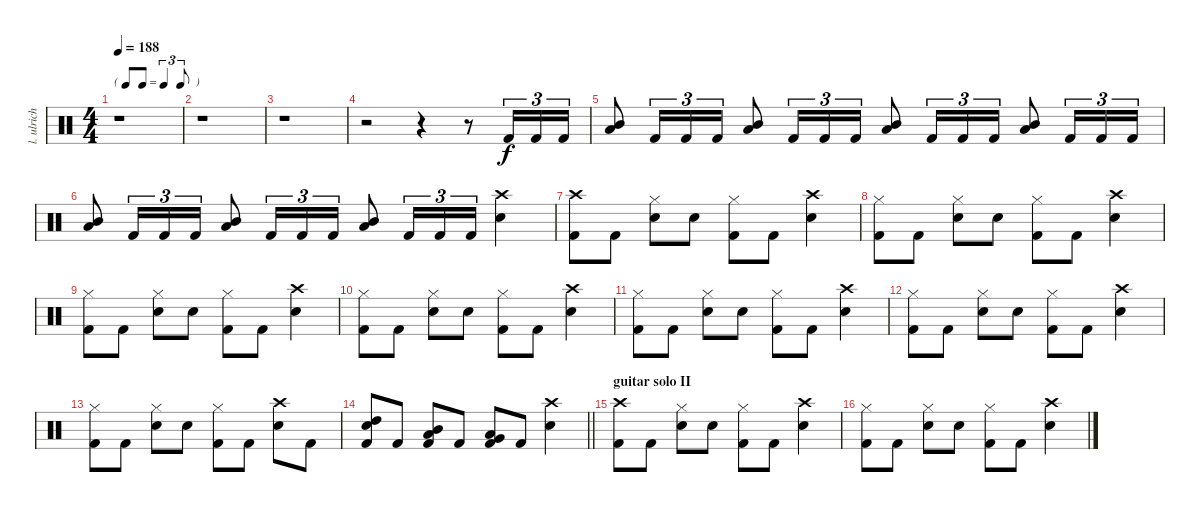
\track ("l. ulrich - drums" "l. ulrich ") {instrument percussion}
\staff {score}
\articulation defaults
\ts (4 4)
\tf triplet8th
\tempo 188
\clef neutral
\ks c
r.1{dy f} |
r.1 |
r.1 |
r.2 r.4 r.8 "Kick (hit) 2".16{tu (3 2)} "Kick (hit) 2".16{tu (3 2)} "Kick (hit) 2".16{tu (3 2)} |
("Mid Tom (hit)" "Low Tom (hit)").8 "Kick (hit) 2".16{tu (3 2)} "Kick (hit) 2".16{tu (3 2)} "Kick (hit) 2".16{tu (3 2)} ("Mid Tom (hit)" "Low Tom (hit)").8 "Kick (hit) 2".16{tu (3 2)} "Kick (hit) 2".16{tu (3 2)} "Kick (hit) 2".16{tu (3 2)} ("Mid Tom (hit)" "Low Tom (hit)").8 "Kick (hit) 2".16{tu (3 2)} "Kick (hit) 2".16{tu (3 2)} "Kick (hit) 2".16{tu (3 2)} ("Mid Tom (hit)" "Low Tom (hit)").8 "Kick (hit) 2".16{tu (3 2)} "Kick (hit) 2".16{tu (3 2)} "Kick (hit) 2".16{tu (3 2)} |
("Mid Tom (hit)" "Low Tom (hit)").8 "Kick (hit) 2".16{tu (3 2)} "Kick (hit) 2".16{tu (3 2)} "Kick (hit) 2".16{tu (3 2)} ("Mid Tom (hit)" "Low Tom (hit)").8 "Kick (hit) 2".16{tu (3 2)} "Kick (hit) 2".16{tu (3 2)} "Kick (hit) 2".16{tu (3 2)} ("Mid Tom (hit)" "Low Tom (hit)").8 "Kick (hit) 2".16{tu (3 2)} "Kick (hit) 2".16{tu (3 2)} "Kick (hit) 2".16{tu (3 2)} ("Crash high (hit)" "Snare (hit) 2").4 |
("Crash high (hit)" "Kick (hit) 2").8 "Kick (hit) 2".8 ("Hi-Hat (closed)" "Snare (hit) 2").8 "Snare (hit) 2".8 ("Hi-Hat (closed)" "Kick (hit) 2").8 "Kick (hit) 2".8 ("Crash high (hit)" "Snare (hit) 2").4 |
("Hi-Hat (closed)" "Kick (hit) 2").8 "Kick (hit) 2".8 ("Hi-Hat (closed)" "Snare (hit) 2").8 "Snare (hit) 2".8 ("Hi-Hat (closed)" "Kick (hit) 2").8 "Kick (hit) 2".8 ("Crash high (hit)" "Snare (hit) 2").4 |
("Hi-Hat (closed)" "Kick (hit) 2").8 "Kick (hit) 2".8 ("Hi-Hat (closed)" "Snare (hit) 2").8 "Snare (hit) 2".8 ("Hi-Hat (closed)" "Kick (hit) 2").8 "Kick (hit) 2".8 ("Crash high (hit)" "Snare (hit) 2").4 |
("Hi-Hat (closed)" "Kick (hit) 2").8 "Kick (hit) 2".8 ("Hi-Hat (closed)" "Snare (hit) 2").8 "Snare (hit) 2".8 ("Hi-Hat (closed)" "Kick (hit) 2").8 "Kick (hit) 2".8 ("Crash high (hit)" "Snare (hit) 2").4 |
("Hi-Hat (closed)" "Kick (hit) 2").8 "Kick (hit) 2".8 ("Hi-Hat (closed)" "Snare (hit) 2").8 "Snare (hit) 2".8 ("Hi-Hat (closed)" "Kick (hit) 2").8 "Kick (hit) 2".8 ("Crash high (hit)" "Snare (hit) 2").4 |
("Hi-Hat (closed)" "Kick (hit) 2").8 "Kick (hit) 2".8 ("Hi-Hat (closed)" "Snare (hit) 2").8 "Snare (hit) 2".8 ("Hi-Hat (closed)" "Kick (hit) 2").8 "Kick (hit) 2".8 ("Crash high (hit)" "Snare (hit) 2").4 |
("Hi-Hat (closed)" "Kick (hit) 2").8 "Kick (hit) 2".8 ("Hi-Hat (closed)" "Snare (hit) 2").8 "Snare (hit) 2".8 ("Hi-Hat (closed)" "Kick (hit) 2").8 "Kick (hit) 2".8 ("Crash high (hit)" "Snare (hit) 2").8 "Kick (hit) 2".8 |
\barLineRight lightlight
("Snare (hit) 2" "High Tom (hit)" "Kick (hit) 2").8 "Kick (hit) 2".8 ("Mid Tom (hit)" "Low Tom (hit)" "Kick (hit) 2").8 "Kick (hit) 2".8 ("Low Tom (hit)" "Very Low Tom (hit)" "Kick (hit) 2").8 "Kick (hit) 2".8 ("Crash high (hit)" "Snare (hit) 2").4 |
\section ("" "guitar solo II")
("Crash high (hit)" "Kick (hit) 2").8 "Kick (hit) 2".8 ("Hi-Hat (closed)" "Snare (hit) 2").8 "Snare (hit) 2".8 ("Hi-Hat (closed)" "Kick (hit) 2").8 "Kick (hit) 2".8 ("Crash high (hit)" "Snare (hit) 2").4 |
("Hi-Hat (closed)" "Kick (hit) 2").8 "Kick (hit) 2".8 ("Hi-Hat (closed)" "Snare (hit) 2").8 "Snare (hit) 2".8 ("Hi-Hat (closed)" "Kick (hit) 2").8 "Kick (hit) 2".8 ("Crash high (hit)" "Snare (hit) 2").4
